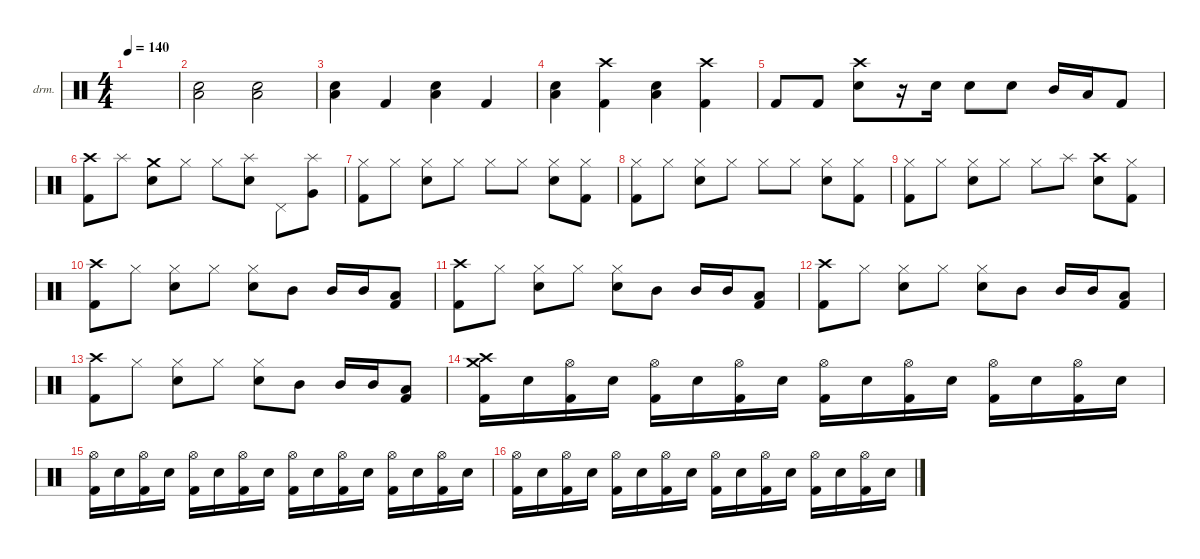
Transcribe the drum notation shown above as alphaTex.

\defaultSystemsLayout 4
\hideDynamics
\bracketExtendMode nobrackets
\firstSystemTrackNameOrientation horizontal
\otherSystemsTrackNameOrientation horizontal
\track ("Drumkit" "drm.") {instrument percussion}
\staff {score}
\articulation defaults
\ts (4 4)
\tempo 140
\clef neutral
\ks c
|
("Snare (hit) 2" "Low Floor Tom (hit)").2 ("Snare (hit) 2" "Low Floor Tom (hit)").2 |
("Snare (hit) 2" "Low Floor Tom (hit)").4 "Kick (hit) 2".4{dy fff} ("Snare (hit) 2" "Low Floor Tom (hit)").4{dy ff} "Kick (hit) 2".4{dy fff} |
("Snare (hit) 2" "Low Floor Tom (hit)").4{dy ff} ("Kick (hit) 2" "Crash high (hit)").4{dy fff} ("Snare (hit) 2" "Low Floor Tom (hit)").4{dy ff} ("Kick (hit) 2" "Crash high (hit)").4{dy fff} |
"Kick (hit) 2".8 "Kick (hit) 2".8 ("Crash high (hit)" "Snare (hit) 2").8 r.16 "Snare (hit) 2".16 "Snare (hit) 2".8 "Snare (hit) 2".8 "Mid Tom (hit)".16 "Low Tom (hit)".16 "Kick (hit) 2".8 |
("Crash high (hit)" "Kick (hit) 2").8{dy ff} "Splash (hit)".8{dy f} ("Snare (hit) 2" "Crash medium (hit)").8 "Hi-Hat (closed)".8 "Hi-Hat (closed)".8 ("Splash (hit)" "Snare (hit) 2").8{dy ff} "Pedal Hi-Hat (hit)".8 ("Splash (hit)" "Very Low Tom (hit)").8 |
("Hi-Hat (closed)" "Kick (hit) 2").8{dy fff} "Hi-Hat (closed)".8 ("Hi-Hat (closed)" "Snare (hit) 2").8 "Hi-Hat (closed)".8 "Hi-Hat (closed)".8 "Hi-Hat (closed)".8 ("Hi-Hat (closed)" "Snare (hit) 2").8 ("Hi-Hat (closed)" "Kick (hit) 2").8 |
("Hi-Hat (closed)" "Kick (hit) 2").8 "Hi-Hat (closed)".8 ("Hi-Hat (closed)" "Snare (hit) 2").8 "Hi-Hat (closed)".8 "Hi-Hat (closed)".8 "Hi-Hat (closed)".8 ("Hi-Hat (closed)" "Snare (hit) 2").8 ("Hi-Hat (closed)" "Kick (hit) 2").8 |
("Hi-Hat (closed)" "Kick (hit) 2").8 "Hi-Hat (closed)".8 ("Hi-Hat (closed)" "Snare (hit) 2").8 "Hi-Hat (closed)".8 "Hi-Hat (closed)".8 "Splash (hit)".8 ("Snare (hit) 2" "Crash high (hit)").8 ("Hi-Hat (closed)" "Kick (hit) 2").8 |
("Crash high (hit)" "Kick (hit) 2").8{dy ff} "Hi-Hat (closed)".8{dy f} ("Hi-Hat (closed)" "Snare (hit) 2").8 "Hi-Hat (closed)".8 ("Hi-Hat (closed)" "Snare (hit) 2").8 "Mid Tom (hit)".8{dy fff} "Mid Tom (hit)".16 "Mid Tom (hit)".16 ("Low Tom (hit)" "Kick (hit) 2").8 |
("Crash high (hit)" "Kick (hit) 2").8{dy ff} "Hi-Hat (closed)".8{dy f} ("Hi-Hat (closed)" "Snare (hit) 2").8 "Hi-Hat (closed)".8 ("Hi-Hat (closed)" "Snare (hit) 2").8 "Mid Tom (hit)".8{dy fff} "Mid Tom (hit)".16 "Mid Tom (hit)".16 ("Low Tom (hit)" "Kick (hit) 2").8 |
("Crash high (hit)" "Kick (hit) 2").8{dy ff} "Hi-Hat (closed)".8{dy f} ("Hi-Hat (closed)" "Snare (hit) 2").8 "Hi-Hat (closed)".8 ("Hi-Hat (closed)" "Snare (hit) 2").8 "Mid Tom (hit)".8{dy fff} "Mid Tom (hit)".16 "Mid Tom (hit)".16 ("Low Tom (hit)" "Kick (hit) 2").8 |
("Crash high (hit)" "Kick (hit) 2").8{dy ff} "Hi-Hat (closed)".8{dy f} ("Hi-Hat (closed)" "Snare (hit) 2").8 "Hi-Hat (closed)".8 ("Hi-Hat (closed)" "Snare (hit) 2").8 "Mid Tom (hit)".8{dy fff} "Mid Tom (hit)".16 "Mid Tom (hit)".16 ("Low Tom (hit)" "Kick (hit) 2").8 |
("Crash high (hit)" "Crash medium (hit)" "Kick (hit) 2").16{dy f} "Snare (hit) 2".16 ("Hi-Hat (open)" "Kick (hit) 2").16 "Snare (hit) 2".16 ("Hi-Hat (open)" "Kick (hit) 2").16 "Snare (hit) 2".16 ("Hi-Hat (open)" "Kick (hit) 2").16 "Snare (hit) 2".16 ("Hi-Hat (open)" "Kick (hit) 2").16 "Snare (hit) 2".16 ("Hi-Hat (open)" "Kick (hit) 2").16 "Snare (hit) 2".16 ("Hi-Hat (open)" "Kick (hit) 2").16 "Snare (hit) 2".16 ("Hi-Hat (open)" "Kick (hit) 2").16 "Snare (hit) 2".16 |
("Hi-Hat (open)" "Kick (hit) 2").16 "Snare (hit) 2".16 ("Hi-Hat (open)" "Kick (hit) 2").16 "Snare (hit) 2".16 ("Hi-Hat (open)" "Kick (hit) 2").16 "Snare (hit) 2".16 ("Hi-Hat (open)" "Kick (hit) 2").16 "Snare (hit) 2".16 ("Hi-Hat (open)" "Kick (hit) 2").16 "Snare (hit) 2".16 ("Hi-Hat (open)" "Kick (hit) 2").16 "Snare (hit) 2".16 ("Hi-Hat (open)" "Kick (hit) 2").16 "Snare (hit) 2".16 ("Hi-Hat (open)" "Kick (hit) 2").16 "Snare (hit) 2".16 |
("Hi-Hat (open)" "Kick (hit) 2").16 "Snare (hit) 2".16 ("Hi-Hat (open)" "Kick (hit) 2").16 "Snare (hit) 2".16 ("Hi-Hat (open)" "Kick (hit) 2").16 "Snare (hit) 2".16 ("Hi-Hat (open)" "Kick (hit) 2").16 "Snare (hit) 2".16 ("Hi-Hat (open)" "Kick (hit) 2").16 "Snare (hit) 2".16 ("Hi-Hat (open)" "Kick (hit) 2").16 "Snare (hit) 2".16 ("Hi-Hat (open)" "Kick (hit) 2").16 "Snare (hit) 2".16 ("Hi-Hat (open)" "Kick (hit) 2").16 "Snare (hit) 2".16
